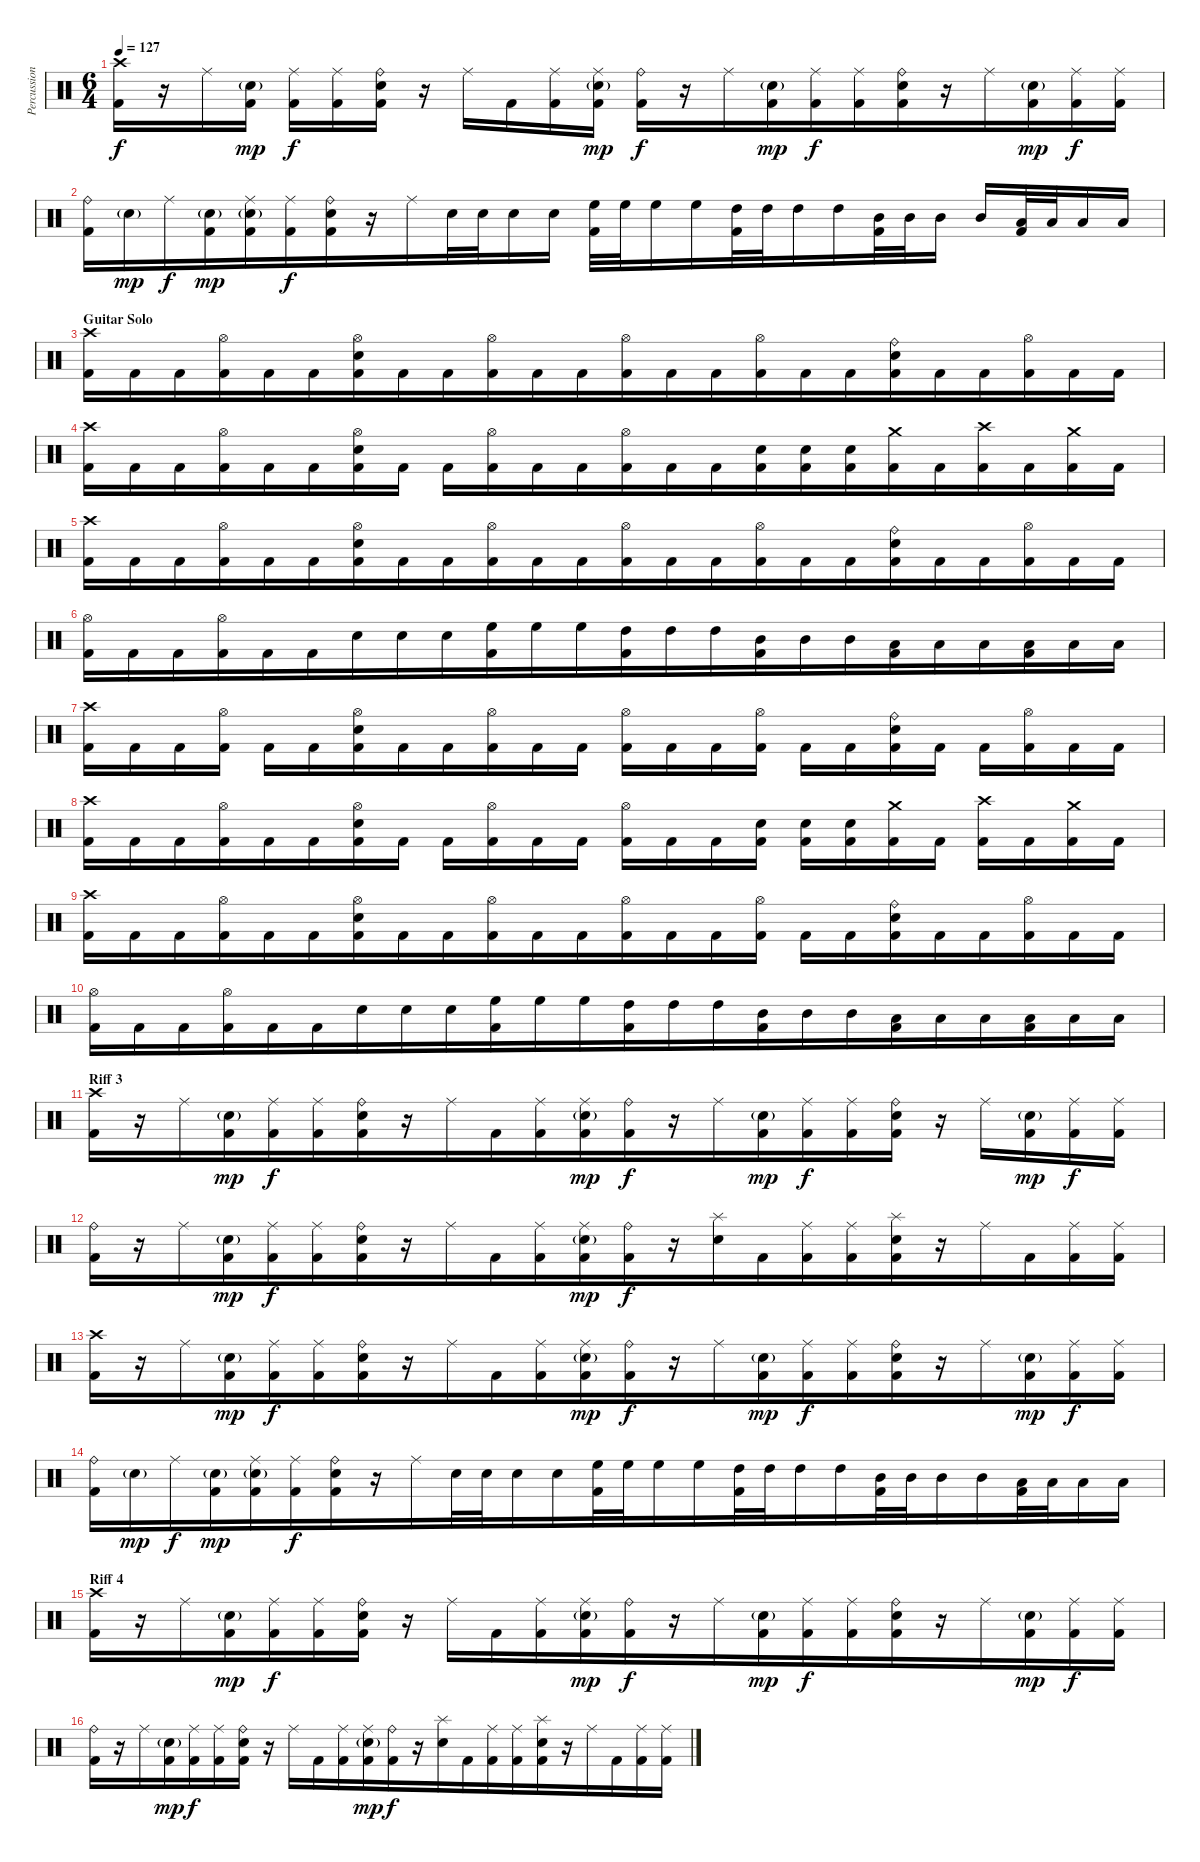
\track ("Percussion" "Percussion") {instrument percussion}
\staff {score}
\articulation defaults
\ts (6 4)
\tempo 127
\clef neutral
\ks c
("Crash high (hit)" "Kick (hit) 2").16{dy f beam merge} r.16{beam merge} "Ride (middle)".16{beam merge} ("Electric Snare (hit)"{g} "Kick (hit) 2").16{dy mp} ("Ride (middle)" "Kick (hit) 2").16{dy f beam merge} ("Ride (middle)" "Kick (hit) 2").16 ("Ride (bell)" "Electric Snare (hit)" "Kick (hit) 2").16 r.16 "Ride (middle)".16{beam merge} "Kick (hit) 2".16{beam merge} ("Ride (middle)" "Kick (hit) 2").16{beam merge} ("Ride (middle)" "Electric Snare (hit)"{g} "Kick (hit) 2").16{dy mp} ("Ride (bell)" "Kick (hit) 2").16{dy f} r.16 "Ride (middle)".16{beam merge} ("Electric Snare (hit)"{g} "Kick (hit) 2").16{dy mp beam merge} ("Ride (middle)" "Kick (hit) 2").16{dy f beam merge} ("Ride (middle)" "Kick (hit) 2").16{beam merge} ("Ride (bell)" "Electric Snare (hit)" "Kick (hit) 2").16{beam merge} r.16 "Ride (middle)".16 ("Electric Snare (hit)"{g} "Kick (hit) 2").16{dy mp beam merge} ("Ride (middle)" "Kick (hit) 2").16{dy f} ("Ride (middle)" "Kick (hit) 2").16 |
("Ride (bell)" "Kick (hit) 2").16{beam merge} "Electric Snare (hit)"{g}.16{dy mp beam merge} "Ride (middle)".16{dy f} ("Electric Snare (hit)"{g} "Kick (hit) 2").16{dy mp beam merge} ("Ride (middle)" "Electric Snare (hit)"{g} "Kick (hit) 2").16{beam merge} ("Ride (middle)" "Kick (hit) 2").16{dy f beam merge} ("Ride (bell)" "Electric Snare (hit)" "Kick (hit) 2").16{beam merge} r.16{beam merge} "Ride (middle)".16{beam merge} "Electric Snare (hit)".32 "Electric Snare (hit)".32{beam merge} "Electric Snare (hit)".16{beam merge} "Electric Snare (hit)".16 ("High Floor Tom (hit)" "Kick (hit) 2").32{beam merge} "High Floor Tom (hit)".32{beam merge} "High Floor Tom (hit)".16{beam merge} "High Floor Tom (hit)".16 ("High Tom (hit)" "Kick (hit) 2").32{beam merge} "High Tom (hit)".32{beam merge} "High Tom (hit)".16{beam merge} "High Tom (hit)".16 ("Mid Tom (hit)" "Kick (hit) 2").32{beam merge} "Mid Tom (hit)".32{beam merge} "Mid Tom (hit)".16 "Mid Tom (hit)".16 ("Low Tom (hit)" "Kick (hit) 2").32 "Low Tom (hit)".32{beam merge} "Low Floor Tom (hit)".16{beam merge} "Low Floor Tom (hit)".16 |
\section ("" "Guitar Solo")
("Crash high (hit)" "Kick (hit) 2").16 "Kick (hit) 2".16{beam merge} "Kick (hit) 2".16{beam merge} ("Hi-Hat (open)" "Kick (hit) 2").16{beam merge} "Kick (hit) 2".16{beam merge} "Kick (hit) 2".16{beam merge} ("Hi-Hat (open)" "Electric Snare (hit)" "Kick (hit) 2").16{beam merge} "Kick (hit) 2".16{beam merge} "Kick (hit) 2".16{beam merge} ("Hi-Hat (open)" "Kick (hit) 2").16{beam merge} "Kick (hit) 2".16{beam merge} "Kick (hit) 2".16{beam merge} ("Hi-Hat (open)" "Kick (hit) 2").16{beam merge} "Kick (hit) 2".16{beam merge} "Kick (hit) 2".16{beam merge} ("Hi-Hat (open)" "Kick (hit) 2").16{beam merge} "Kick (hit) 2".16{beam merge} "Kick (hit) 2".16{beam merge} ("Ride (bell)" "Electric Snare (hit)" "Kick (hit) 2").16{beam merge} "Kick (hit) 2".16{beam merge} "Kick (hit) 2".16{beam merge} ("Hi-Hat (open)" "Kick (hit) 2").16{beam merge} "Kick (hit) 2".16{beam merge} "Kick (hit) 2".16 |
("Crash high (hit)" "Kick (hit) 2").16{beam merge} "Kick (hit) 2".16{beam merge} "Kick (hit) 2".16{beam merge} ("Hi-Hat (open)" "Kick (hit) 2").16{beam merge} "Kick (hit) 2".16{beam merge} "Kick (hit) 2".16{beam merge} ("Hi-Hat (open)" "Electric Snare (hit)" "Kick (hit) 2").16 "Kick (hit) 2".16 "Kick (hit) 2".16{beam merge} ("Hi-Hat (open)" "Kick (hit) 2").16{beam merge} "Kick (hit) 2".16{beam merge} "Kick (hit) 2".16{beam merge} ("Hi-Hat (open)" "Kick (hit) 2").16{beam merge} "Kick (hit) 2".16{beam merge} "Kick (hit) 2".16{beam merge} ("Electric Snare (hit)" "Kick (hit) 2").16{beam merge} ("Electric Snare (hit)" "Kick (hit) 2").16{beam merge} ("Electric Snare (hit)" "Kick (hit) 2").16{beam merge} ("Crash medium (hit)" "Kick (hit) 2").16{beam merge} "Kick (hit) 2".16{beam merge} ("Crash high (hit)" "Kick (hit) 2").16{beam merge} "Kick (hit) 2".16{beam merge} ("Crash medium (hit)" "Kick (hit) 2").16{beam merge} "Kick (hit) 2".16 |
("Crash high (hit)" "Kick (hit) 2").16 "Kick (hit) 2".16{beam merge} "Kick (hit) 2".16{beam merge} ("Hi-Hat (open)" "Kick (hit) 2").16{beam merge} "Kick (hit) 2".16 "Kick (hit) 2".16{beam merge} ("Hi-Hat (open)" "Electric Snare (hit)" "Kick (hit) 2").16{beam merge} "Kick (hit) 2".16{beam merge} "Kick (hit) 2".16{beam merge} ("Hi-Hat (open)" "Kick (hit) 2").16{beam merge} "Kick (hit) 2".16{beam merge} "Kick (hit) 2".16{beam merge} ("Hi-Hat (open)" "Kick (hit) 2").16 "Kick (hit) 2".16{beam merge} "Kick (hit) 2".16{beam merge} ("Hi-Hat (open)" "Kick (hit) 2").16{beam merge} "Kick (hit) 2".16{beam merge} "Kick (hit) 2".16{beam merge} ("Ride (bell)" "Electric Snare (hit)" "Kick (hit) 2").16{beam merge} "Kick (hit) 2".16{beam merge} "Kick (hit) 2".16 ("Hi-Hat (open)" "Kick (hit) 2").16{beam merge} "Kick (hit) 2".16{beam merge} "Kick (hit) 2".16 |
("Hi-Hat (open)" "Kick (hit) 2").16{beam merge} "Kick (hit) 2".16{beam merge} "Kick (hit) 2".16{beam merge} ("Hi-Hat (open)" "Kick (hit) 2").16{beam merge} "Kick (hit) 2".16{beam merge} "Kick (hit) 2".16{beam merge} "Electric Snare (hit)".16 "Electric Snare (hit)".16{beam merge} "Electric Snare (hit)".16{beam merge} ("High Floor Tom (hit)" "Kick (hit) 2").16{beam merge} "High Floor Tom (hit)".16{beam merge} "High Floor Tom (hit)".16{beam merge} ("High Tom (hit)" "Kick (hit) 2").16{beam merge} "High Tom (hit)".16{beam merge} "High Tom (hit)".16{beam merge} ("Mid Tom (hit)" "Kick (hit) 2").16{beam merge} "Mid Tom (hit)".16{beam merge} "Mid Tom (hit)".16{beam merge} ("Low Tom (hit)" "Kick (hit) 2").16{beam merge} "Low Tom (hit)".16{beam merge} "Low Tom (hit)".16{beam merge} ("Low Floor Tom (hit)" "Kick (hit) 2").16 "Low Floor Tom (hit)".16{beam merge} "Low Floor Tom (hit)".16 |
("Crash high (hit)" "Kick (hit) 2").16 "Kick (hit) 2".16 "Kick (hit) 2".16 ("Hi-Hat (open)" "Kick (hit) 2").16 "Kick (hit) 2".16 "Kick (hit) 2".16{beam merge} ("Hi-Hat (open)" "Electric Snare (hit)" "Kick (hit) 2").16 "Kick (hit) 2".16{beam merge} "Kick (hit) 2".16 ("Hi-Hat (open)" "Kick (hit) 2").16 "Kick (hit) 2".16 "Kick (hit) 2".16 ("Hi-Hat (open)" "Kick (hit) 2").16 "Kick (hit) 2".16 "Kick (hit) 2".16{beam merge} ("Hi-Hat (open)" "Kick (hit) 2").16 "Kick (hit) 2".16 "Kick (hit) 2".16 ("Ride (bell)" "Electric Snare (hit)" "Kick (hit) 2").16 "Kick (hit) 2".16 "Kick (hit) 2".16 ("Hi-Hat (open)" "Kick (hit) 2").16{beam merge} "Kick (hit) 2".16 "Kick (hit) 2".16 |
("Crash high (hit)" "Kick (hit) 2").16 "Kick (hit) 2".16{beam merge} "Kick (hit) 2".16{beam merge} ("Hi-Hat (open)" "Kick (hit) 2").16{beam merge} "Kick (hit) 2".16{beam merge} "Kick (hit) 2".16{beam merge} ("Hi-Hat (open)" "Electric Snare (hit)" "Kick (hit) 2").16 "Kick (hit) 2".16 "Kick (hit) 2".16{beam merge} ("Hi-Hat (open)" "Kick (hit) 2").16 "Kick (hit) 2".16{beam merge} "Kick (hit) 2".16 ("Hi-Hat (open)" "Kick (hit) 2").16{beam merge} "Kick (hit) 2".16{beam merge} "Kick (hit) 2".16 ("Electric Snare (hit)" "Kick (hit) 2").16 ("Electric Snare (hit)" "Kick (hit) 2").16{beam merge} ("Electric Snare (hit)" "Kick (hit) 2").16 ("Crash medium (hit)" "Kick (hit) 2").16 "Kick (hit) 2".16 ("Crash high (hit)" "Kick (hit) 2").16 "Kick (hit) 2".16 ("Crash medium (hit)" "Kick (hit) 2").16 "Kick (hit) 2".16 |
("Crash high (hit)" "Kick (hit) 2").16 "Kick (hit) 2".16{beam merge} "Kick (hit) 2".16{beam merge} ("Hi-Hat (open)" "Kick (hit) 2").16{beam merge} "Kick (hit) 2".16 "Kick (hit) 2".16{beam merge} ("Hi-Hat (open)" "Electric Snare (hit)" "Kick (hit) 2").16{beam merge} "Kick (hit) 2".16{beam merge} "Kick (hit) 2".16{beam merge} ("Hi-Hat (open)" "Kick (hit) 2").16{beam merge} "Kick (hit) 2".16{beam merge} "Kick (hit) 2".16{beam merge} ("Hi-Hat (open)" "Kick (hit) 2").16 "Kick (hit) 2".16{beam merge} "Kick (hit) 2".16{beam merge} ("Hi-Hat (open)" "Kick (hit) 2").16 "Kick (hit) 2".16{beam merge} "Kick (hit) 2".16{beam merge} ("Ride (bell)" "Electric Snare (hit)" "Kick (hit) 2").16{beam merge} "Kick (hit) 2".16{beam merge} "Kick (hit) 2".16{beam merge} ("Hi-Hat (open)" "Kick (hit) 2").16 "Kick (hit) 2".16{beam merge} "Kick (hit) 2".16 |
("Hi-Hat (open)" "Kick (hit) 2").16{beam merge} "Kick (hit) 2".16{beam merge} "Kick (hit) 2".16{beam merge} ("Hi-Hat (open)" "Kick (hit) 2").16{beam merge} "Kick (hit) 2".16{beam merge} "Kick (hit) 2".16{beam merge} "Electric Snare (hit)".16 "Electric Snare (hit)".16{beam merge} "Electric Snare (hit)".16{beam merge} ("High Floor Tom (hit)" "Kick (hit) 2").16{beam merge} "High Floor Tom (hit)".16{beam merge} "High Floor Tom (hit)".16{beam merge} ("High Tom (hit)" "Kick (hit) 2").16{beam merge} "High Tom (hit)".16{beam merge} "High Tom (hit)".16{beam merge} ("Mid Tom (hit)" "Kick (hit) 2").16{beam merge} "Mid Tom (hit)".16{beam merge} "Mid Tom (hit)".16{beam merge} ("Low Tom (hit)" "Kick (hit) 2").16{beam merge} "Low Tom (hit)".16{beam merge} "Low Tom (hit)".16{beam merge} ("Low Floor Tom (hit)" "Kick (hit) 2").16{beam merge} "Low Floor Tom (hit)".16{beam merge} "Low Floor Tom (hit)".16 |
\section ("" "Riff 3")
("Crash high (hit)" "Kick (hit) 2").16{beam merge} r.16{beam merge} "Ride (middle)".16 ("Electric Snare (hit)"{g} "Kick (hit) 2").16{dy mp beam merge} ("Ride (middle)" "Kick (hit) 2").16{dy f beam merge} ("Ride (middle)" "Kick (hit) 2").16{beam merge} ("Ride (bell)" "Electric Snare (hit)" "Kick (hit) 2").16{beam merge} r.16{beam merge} "Ride (middle)".16{beam merge} "Kick (hit) 2".16{beam merge} ("Ride (middle)" "Kick (hit) 2").16{beam merge} ("Ride (middle)" "Electric Snare (hit)"{g} "Kick (hit) 2").16{dy mp beam merge} ("Ride (bell)" "Kick (hit) 2").16{dy f beam merge} r.16{beam merge} "Ride (middle)".16{beam merge} ("Electric Snare (hit)"{g} "Kick (hit) 2").16{dy mp beam merge} ("Ride (middle)" "Kick (hit) 2").16{dy f beam merge} ("Ride (middle)" "Kick (hit) 2").16{beam merge} ("Ride (bell)" "Electric Snare (hit)" "Kick (hit) 2").16 r.16{beam merge} "Ride (middle)".16{beam merge} ("Electric Snare (hit)"{g} "Kick (hit) 2").16{dy mp beam merge} ("Ride (middle)" "Kick (hit) 2").16{dy f beam merge} ("Ride (middle)" "Kick (hit) 2").16 |
("Ride (bell)" "Kick (hit) 2").16{beam merge} r.16{beam merge} "Ride (middle)".16{beam merge} ("Electric Snare (hit)"{g} "Kick (hit) 2").16{dy mp beam merge} ("Ride (middle)" "Kick (hit) 2").16{dy f beam merge} ("Ride (middle)" "Kick (hit) 2").16{beam merge} ("Ride (bell)" "Electric Snare (hit)" "Kick (hit) 2").16{beam merge} r.16{beam merge} "Ride (middle)".16{beam merge} "Kick (hit) 2".16 ("Ride (middle)" "Kick (hit) 2").16{beam merge} ("Ride (middle)" "Electric Snare (hit)"{g} "Kick (hit) 2").16{dy mp beam merge} ("Ride (bell)" "Kick (hit) 2").16{dy f beam merge} r.16{beam merge} ("Splash (hit)" "Electric Snare (hit)").16{beam merge} "Kick (hit) 2".16{beam merge} ("Ride (middle)" "Kick (hit) 2").16{beam merge} ("Ride (middle)" "Kick (hit) 2").16 ("Splash (hit)" "Electric Snare (hit)" "Kick (hit) 2").16{beam merge} r.16{beam merge} "Ride (middle)".16{beam merge} "Kick (hit) 2".16{beam merge} ("Ride (middle)" "Kick (hit) 2").16{beam merge} ("Ride (middle)" "Kick (hit) 2").16 |
("Crash high (hit)" "Kick (hit) 2").16{beam merge} r.16{beam merge} "Ride (middle)".16{beam merge} ("Electric Snare (hit)"{g} "Kick (hit) 2").16{dy mp beam merge} ("Ride (middle)" "Kick (hit) 2").16{dy f beam merge} ("Ride (middle)" "Kick (hit) 2").16{beam merge} ("Ride (bell)" "Electric Snare (hit)" "Kick (hit) 2").16{beam merge} r.16{beam merge} "Ride (middle)".16{beam merge} "Kick (hit) 2".16{beam merge} ("Ride (middle)" "Kick (hit) 2").16{beam merge} ("Ride (middle)" "Electric Snare (hit)"{g} "Kick (hit) 2").16{dy mp beam merge} ("Ride (bell)" "Kick (hit) 2").16{dy f beam merge} r.16{beam merge} "Ride (middle)".16{beam merge} ("Electric Snare (hit)"{g} "Kick (hit) 2").16{dy mp beam merge} ("Ride (middle)" "Kick (hit) 2").16{dy f beam merge} ("Ride (middle)" "Kick (hit) 2").16{beam merge} ("Ride (bell)" "Electric Snare (hit)" "Kick (hit) 2").16{beam merge} r.16{beam merge} "Ride (middle)".16{beam merge} ("Electric Snare (hit)"{g} "Kick (hit) 2").16{dy mp beam merge} ("Ride (middle)" "Kick (hit) 2").16{dy f beam merge} ("Ride (middle)" "Kick (hit) 2").16 |
("Ride (bell)" "Kick (hit) 2").16{beam merge} "Electric Snare (hit)"{g}.16{dy mp beam merge} "Ride (middle)".16{dy f beam merge} ("Electric Snare (hit)"{g} "Kick (hit) 2").16{dy mp beam merge} ("Ride (middle)" "Electric Snare (hit)"{g} "Kick (hit) 2").16{beam merge} ("Ride (middle)" "Kick (hit) 2").16{dy f beam merge} ("Ride (bell)" "Electric Snare (hit)" "Kick (hit) 2").16{beam merge} r.16{beam merge} "Ride (middle)".16{beam merge} "Electric Snare (hit)".32 "Electric Snare (hit)".32{beam merge} "Electric Snare (hit)".16{beam merge} "Electric Snare (hit)".16{beam merge} ("High Floor Tom (hit)" "Kick (hit) 2").32{beam merge} "High Floor Tom (hit)".32{beam merge} "High Floor Tom (hit)".16{beam merge} "High Floor Tom (hit)".16{beam merge} ("High Tom (hit)" "Kick (hit) 2").32{beam merge} "High Tom (hit)".32{beam merge} "High Tom (hit)".16{beam merge} "High Tom (hit)".16{beam merge} ("Mid Tom (hit)" "Kick (hit) 2").32{beam merge} "Mid Tom (hit)".32{beam merge} "Mid Tom (hit)".16{beam merge} "Mid Tom (hit)".16{beam merge} ("Low Tom (hit)" "Kick (hit) 2").32{beam merge} "Low Tom (hit)".32{beam merge} "Low Floor Tom (hit)".16{beam merge} "Low Floor Tom (hit)".16 |
\section ("" "Riff 4")
("Crash high (hit)" "Kick (hit) 2").16{beam merge} r.16{beam merge} "Ride (middle)".16{beam merge} ("Electric Snare (hit)"{g} "Kick (hit) 2").16{dy mp beam merge} ("Ride (middle)" "Kick (hit) 2").16{dy f beam merge} ("Ride (middle)" "Kick (hit) 2").16{beam merge} ("Ride (bell)" "Electric Snare (hit)" "Kick (hit) 2").16 r.16{beam merge} "Ride (middle)".16{beam merge} "Kick (hit) 2".16{beam merge} ("Ride (middle)" "Kick (hit) 2").16{beam merge} ("Ride (middle)" "Electric Snare (hit)"{g} "Kick (hit) 2").16{dy mp beam merge} ("Ride (bell)" "Kick (hit) 2").16{dy f beam merge} r.16{beam merge} "Ride (middle)".16 ("Electric Snare (hit)"{g} "Kick (hit) 2").16{dy mp beam merge} ("Ride (middle)" "Kick (hit) 2").16{dy f beam merge} ("Ride (middle)" "Kick (hit) 2").16{beam merge} ("Ride (bell)" "Electric Snare (hit)" "Kick (hit) 2").16{beam merge} r.16{beam merge} "Ride (middle)".16{beam merge} ("Electric Snare (hit)"{g} "Kick (hit) 2").16{dy mp beam merge} ("Ride (middle)" "Kick (hit) 2").16{dy f beam merge} ("Ride (middle)" "Kick (hit) 2").16 |
("Ride (bell)" "Kick (hit) 2").16{beam merge} r.16{beam merge} "Ride (middle)".16{beam merge} ("Electric Snare (hit)"{g} "Kick (hit) 2").16{dy mp beam merge} ("Ride (middle)" "Kick (hit) 2").16{dy f beam merge} ("Ride (middle)" "Kick (hit) 2").16{beam merge} ("Ride (bell)" "Electric Snare (hit)" "Kick (hit) 2").16 r.16{beam merge} "Ride (middle)".16{beam merge} "Kick (hit) 2".16{beam merge} ("Ride (middle)" "Kick (hit) 2").16{beam merge} ("Ride (middle)" "Electric Snare (hit)"{g} "Kick (hit) 2").16{dy mp beam merge} ("Ride (bell)" "Kick (hit) 2").16{dy f beam merge} r.16{beam merge} ("Splash (hit)" "Electric Snare (hit)").16 "Kick (hit) 2".16{beam merge} ("Ride (middle)" "Kick (hit) 2").16{beam merge} ("Ride (middle)" "Kick (hit) 2").16{beam merge} ("Splash (hit)" "Electric Snare (hit)" "Kick (hit) 2").16{beam merge} r.16{beam merge} "Ride (middle)".16{beam merge} "Kick (hit) 2".16{beam merge} ("Ride (middle)" "Kick (hit) 2").16{beam merge} ("Ride (middle)" "Kick (hit) 2").16
